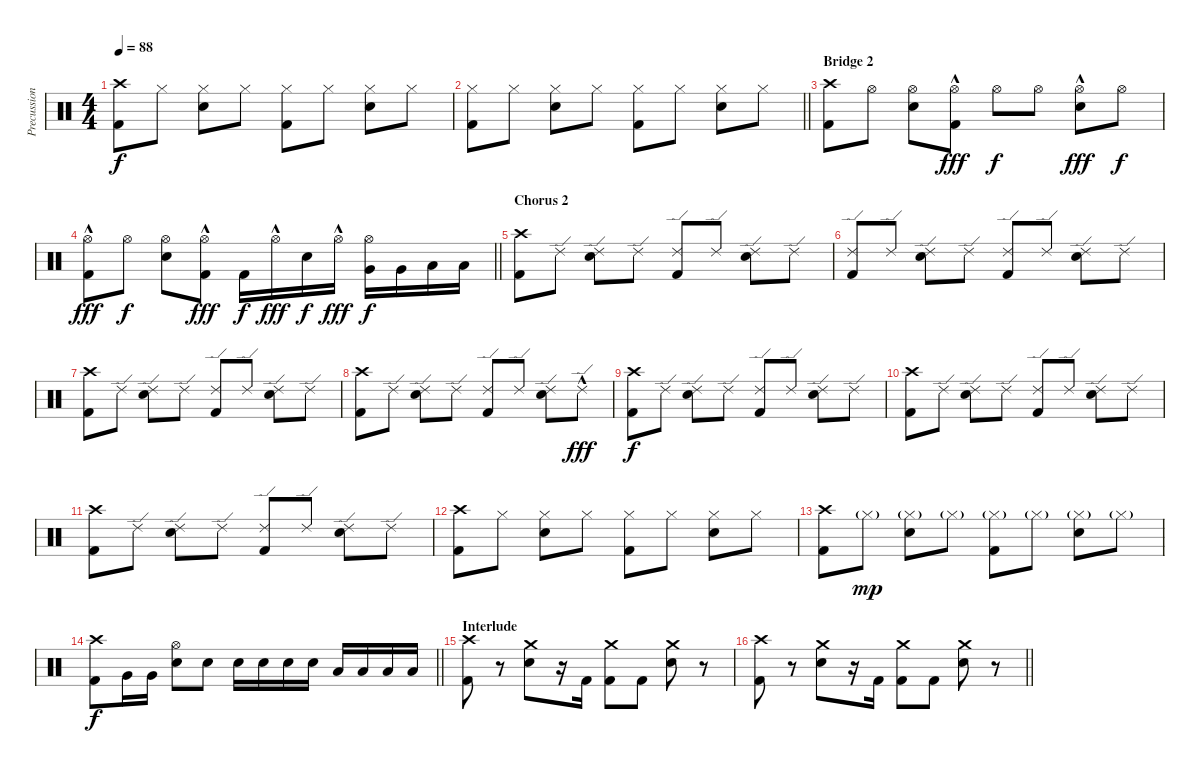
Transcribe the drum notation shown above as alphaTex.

\track ("Precussion" "Precussion") {instrument percussion}
\staff {score}
\articulation defaults
\ts (4 4)
\tempo 88
\clef neutral
\ks c
("Crash high (hit)" "Kick (hit) 2").8{dy f} "Hi-Hat (closed)".8 ("Hi-Hat (closed)" "Electric Snare (hit)").8 "Hi-Hat (closed)".8 ("Hi-Hat (closed)" "Kick (hit) 2").8 "Hi-Hat (closed)".8 ("Hi-Hat (closed)" "Electric Snare (hit)").8 "Hi-Hat (closed)".8 |
\barLineRight lightlight
("Hi-Hat (closed)" "Kick (hit) 2").8 "Hi-Hat (closed)".8 ("Hi-Hat (closed)" "Electric Snare (hit)").8 "Hi-Hat (closed)".8 ("Hi-Hat (closed)" "Kick (hit) 2").8 "Hi-Hat (closed)".8 ("Hi-Hat (closed)" "Electric Snare (hit)").8 "Hi-Hat (closed)".8 |
\section ("" "Bridge 2")
("Crash high (hit)" "Kick (hit) 2").8 "Hi-Hat (open)".8 ("Hi-Hat (open)" "Electric Snare (hit)").8 ("Hi-Hat (open)"{hac} "Kick (hit) 2").8{dy fff} "Hi-Hat (open)".8{dy f} "Hi-Hat (open)".8 ("Hi-Hat (open)"{hac} "Electric Snare (hit)").8{dy fff} "Hi-Hat (open)".8{dy f} |
\barLineRight lightlight
("Hi-Hat (open)"{hac} "Kick (hit) 2").8{dy fff} "Hi-Hat (open)".8{dy f} ("Hi-Hat (open)" "Electric Snare (hit)").8 ("Hi-Hat (open)"{hac} "Kick (hit) 2").8{dy fff} "Kick (hit) 2".16{dy f} "Hi-Hat (open)"{hac}.16{dy fff} "Electric Snare (hit)".16{dy f} "Hi-Hat (open)"{hac}.16{dy fff} ("Hi-Hat (open)" "Very Low Tom (hit)").16{dy f} "Very Low Tom (hit)".16 "Low Floor Tom (hit)".16 "Low Floor Tom (hit)".16 |
\section ("" "Chorus 2")
("Crash high (hit)" "Kick (hit) 2").8 "Ride (edge) 2".8 ("Ride (edge) 2" "Electric Snare (hit)").8 "Ride (edge) 2".8 ("Ride (edge) 2" "Kick (hit) 2").8 "Ride (edge) 2".8 ("Ride (edge) 2" "Electric Snare (hit)").8 "Ride (edge) 2".8 |
("Ride (edge) 2" "Kick (hit) 2").8 "Ride (edge) 2".8 ("Ride (edge) 2" "Electric Snare (hit)").8 "Ride (edge) 2".8 ("Ride (edge) 2" "Kick (hit) 2").8 "Ride (edge) 2".8 ("Ride (edge) 2" "Electric Snare (hit)").8 "Ride (edge) 2".8 |
("Crash high (hit)" "Kick (hit) 2").8 "Ride (edge) 2".8 ("Ride (edge) 2" "Electric Snare (hit)").8 "Ride (edge) 2".8 ("Ride (edge) 2" "Kick (hit) 2").8 "Ride (edge) 2".8 ("Ride (edge) 2" "Electric Snare (hit)").8 "Ride (edge) 2".8 |
("Crash high (hit)" "Kick (hit) 2").8 "Ride (edge) 2".8 ("Ride (edge) 2" "Electric Snare (hit)").8 "Ride (edge) 2".8 ("Ride (edge) 2" "Kick (hit) 2").8 "Ride (edge) 2".8 ("Ride (edge) 2" "Electric Snare (hit)").8 "Ride (edge) 2"{hac}.8{dy fff} |
("Crash high (hit)" "Kick (hit) 2").8{dy f} "Ride (edge) 2".8 ("Ride (edge) 2" "Electric Snare (hit)").8 "Ride (edge) 2".8 ("Ride (edge) 2" "Kick (hit) 2").8 "Ride (edge) 2".8 ("Ride (edge) 2" "Electric Snare (hit)").8 "Ride (edge) 2".8 |
("Crash high (hit)" "Kick (hit) 2").8 "Ride (edge) 2".8 ("Ride (edge) 2" "Electric Snare (hit)").8 "Ride (edge) 2".8 ("Ride (edge) 2" "Kick (hit) 2").8 "Ride (edge) 2".8 ("Ride (edge) 2" "Electric Snare (hit)").8 "Ride (edge) 2".8 |
("Crash high (hit)" "Kick (hit) 2").8 "Ride (edge) 2".8 ("Ride (edge) 2" "Electric Snare (hit)").8 "Ride (edge) 2".8 ("Ride (edge) 2" "Kick (hit) 2").8 "Ride (edge) 2".8 ("Ride (edge) 2" "Electric Snare (hit)").8 "Ride (edge) 2".8 |
("Crash high (hit)" "Kick (hit) 2").8 "Hi-Hat (closed)".8 ("Hi-Hat (closed)" "Electric Snare (hit)").8 "Hi-Hat (closed)".8 ("Hi-Hat (closed)" "Kick (hit) 2").8 "Hi-Hat (closed)".8 ("Hi-Hat (closed)" "Electric Snare (hit)").8 "Hi-Hat (closed)".8 |
("Crash high (hit)" "Kick (hit) 2").8 "Hi-Hat (closed)"{g}.8{dy mp} ("Hi-Hat (closed)"{g} "Electric Snare (hit)").8 "Hi-Hat (closed)"{g}.8 ("Hi-Hat (closed)"{g} "Kick (hit) 2").8 "Hi-Hat (closed)"{g}.8 ("Hi-Hat (closed)"{g} "Electric Snare (hit)").8 "Hi-Hat (closed)"{g}.8 |
\barLineRight lightlight
("Crash high (hit)" "Kick (hit) 2").8{dy f} "Very Low Tom (hit)".16 "Very Low Tom (hit)".16 ("Hi-Hat (open)" "Electric Snare (hit)").8 "Electric Snare (hit)".8 "Electric Snare (hit)".16 "Electric Snare (hit)".16 "Electric Snare (hit)".16 "Electric Snare (hit)".16 "Low Floor Tom (hit)".16 "Low Floor Tom (hit)".16 "Low Floor Tom (hit)".16 "Low Floor Tom (hit)".16 |
\section ("" "Interlude")
("Crash high (hit)" "Kick (hit) 2").8 r.8 ("Crash medium (hit)" "Electric Snare (hit)").8 r.16 "Kick (hit) 2".16 ("Crash medium (hit)" "Kick (hit) 2").8 "Kick (hit) 2".8 ("Crash medium (hit)" "Electric Snare (hit)").8 r.8 |
\barLineRight lightlight
("Crash high (hit)" "Kick (hit) 2").8 r.8 ("Crash medium (hit)" "Electric Snare (hit)").8 r.16 "Kick (hit) 2".16 ("Crash medium (hit)" "Kick (hit) 2").8 "Kick (hit) 2".8 ("Crash medium (hit)" "Electric Snare (hit)").8 r.8
